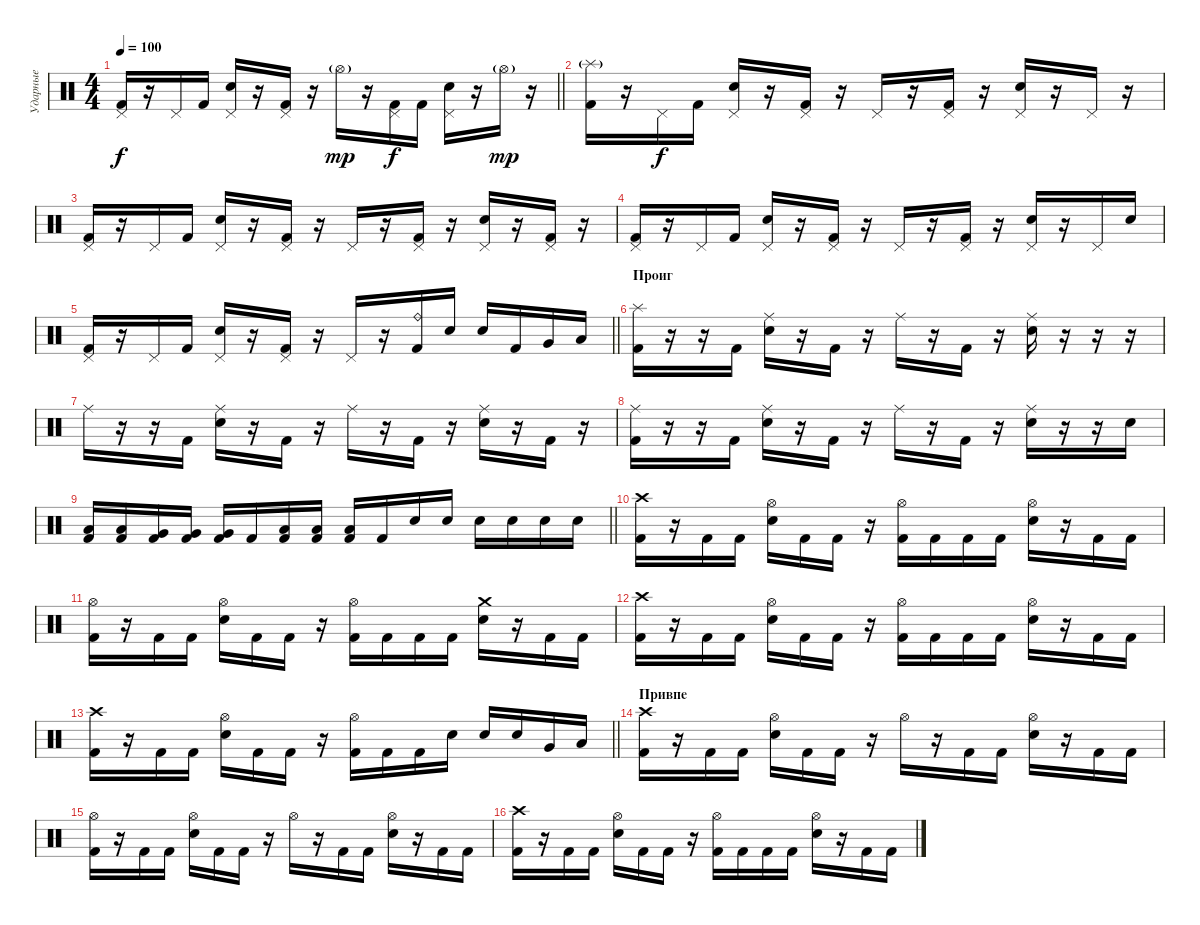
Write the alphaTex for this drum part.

\track ("Ударные" "Ударные") {instrument percussion}
\staff {score}
\articulation defaults
\ts (4 4)
\tempo 100
\clef neutral
\barLineRight lightlight
\ks c
("Pedal Hi-Hat (hit)" "Kick (hit) 2").16{dy f} r.16 "Pedal Hi-Hat (hit)".16 "Kick (hit) 2".16 ("Pedal Hi-Hat (hit)" "Snare (hit) 2").16 r.16 ("Pedal Hi-Hat (hit)" "Kick (hit) 2").16 r.16 "Hi-Hat (open)"{g}.16{dy mp} r.16 ("Pedal Hi-Hat (hit)" "Kick (hit) 2").16{dy f} "Kick (hit) 2".16 ("Pedal Hi-Hat (hit)" "Snare (hit) 2").16 r.16 "Hi-Hat (open)"{g}.16{dy mp} r.16 |
("Splash (hit)"{g} "Kick (hit) 2").16 r.16 "Pedal Hi-Hat (hit)".16{dy f} "Kick (hit) 2".16 ("Pedal Hi-Hat (hit)" "Snare (hit) 2").16 r.16 ("Pedal Hi-Hat (hit)" "Kick (hit) 2").16 r.16 "Pedal Hi-Hat (hit)".16 r.16 ("Pedal Hi-Hat (hit)" "Kick (hit) 2").16 r.16 ("Pedal Hi-Hat (hit)" "Snare (hit) 2").16 r.16 "Pedal Hi-Hat (hit)".16 r.16 |
("Pedal Hi-Hat (hit)" "Kick (hit) 2").16 r.16 "Pedal Hi-Hat (hit)".16 "Kick (hit) 2".16 ("Pedal Hi-Hat (hit)" "Snare (hit) 2").16 r.16 ("Pedal Hi-Hat (hit)" "Kick (hit) 2").16 r.16 "Pedal Hi-Hat (hit)".16 r.16 ("Pedal Hi-Hat (hit)" "Kick (hit) 2").16 r.16 ("Pedal Hi-Hat (hit)" "Snare (hit) 2").16 r.16 ("Pedal Hi-Hat (hit)" "Kick (hit) 2").16 r.16 |
("Pedal Hi-Hat (hit)" "Kick (hit) 2").16 r.16 "Pedal Hi-Hat (hit)".16 "Kick (hit) 2".16 ("Pedal Hi-Hat (hit)" "Snare (hit) 2").16 r.16 ("Pedal Hi-Hat (hit)" "Kick (hit) 2").16 r.16 "Pedal Hi-Hat (hit)".16 r.16 ("Pedal Hi-Hat (hit)" "Kick (hit) 2").16 r.16 ("Pedal Hi-Hat (hit)" "Snare (hit) 2").16 r.16 "Pedal Hi-Hat (hit)".16 "Snare (hit) 2".16 |
\barLineRight lightlight
("Pedal Hi-Hat (hit)" "Kick (hit) 2").16 r.16 "Pedal Hi-Hat (hit)".16 "Kick (hit) 2".16 ("Pedal Hi-Hat (hit)" "Snare (hit) 2").16 r.16 ("Pedal Hi-Hat (hit)" "Kick (hit) 2").16 r.16 "Pedal Hi-Hat (hit)".16 r.16 ("Ride (bell)" "Kick (hit) 2").16 "Snare (hit) 2".16 "Snare (hit) 2".16 "Kick (hit) 2".16 "Very Low Tom (hit)".16 "Low Tom (hit)".16 |
\section ("" "Проиг")
("Splash (hit)" "Kick (hit) 2").16 r.16 r.16 "Kick (hit) 2".16 ("Ride (middle)" "Snare (hit) 2").16 r.16 "Kick (hit) 2".16 r.16 "Ride (middle)".16 r.16 "Kick (hit) 2".16 r.16 ("Ride (middle)" "Snare (hit) 2").16 r.16 r.16 r.16 |
"Ride (middle)".16 r.16 r.16 "Kick (hit) 2".16 ("Ride (middle)" "Snare (hit) 2").16 r.16 "Kick (hit) 2".16 r.16 "Ride (middle)".16 r.16 "Kick (hit) 2".16 r.16 ("Ride (middle)" "Snare (hit) 2").16 r.16 "Kick (hit) 2".16 r.16 |
("Ride (middle)" "Kick (hit) 2").16 r.16 r.16 "Kick (hit) 2".16 ("Ride (middle)" "Snare (hit) 2").16 r.16 "Kick (hit) 2".16 r.16 "Ride (middle)".16 r.16 "Kick (hit) 2".16 r.16 ("Ride (middle)" "Snare (hit) 2").16 r.16 r.16 "Snare (hit) 2".16 |
\barLineRight lightlight
("Low Floor Tom (hit)" "Kick (hit) 2").16 ("Low Floor Tom (hit)" "Kick (hit) 2").16 ("Very Low Tom (hit)" "Kick (hit) 2").16 ("Very Low Tom (hit)" "Kick (hit) 2").16 ("Very Low Tom (hit)" "Kick (hit) 2").16 "Kick (hit) 2".16 ("Low Tom (hit)" "Kick (hit) 2").16 ("Low Tom (hit)" "Kick (hit) 2").16 ("Low Tom (hit)" "Kick (hit) 2").16 "Kick (hit) 2".16 "Snare (hit) 2".16 "Snare (hit) 2".16 "Snare (hit) 2".16 "Snare (hit) 2".16 "Snare (hit) 2".16 "Snare (hit) 2".16 |
("Crash high (hit)" "Kick (hit) 2").16 r.16 "Kick (hit) 2".16 "Kick (hit) 2".16 ("Hi-Hat (open)" "Snare (hit) 2").16 "Kick (hit) 2".16 "Kick (hit) 2".16 r.16 ("Hi-Hat (open)" "Kick (hit) 2").16 "Kick (hit) 2".16 "Kick (hit) 2".16 "Kick (hit) 2".16 ("Hi-Hat (open)" "Snare (hit) 2").16 r.16 "Kick (hit) 2".16 "Kick (hit) 2".16 |
("Hi-Hat (open)" "Kick (hit) 2").16 r.16 "Kick (hit) 2".16 "Kick (hit) 2".16 ("Hi-Hat (open)" "Snare (hit) 2").16 "Kick (hit) 2".16 "Kick (hit) 2".16 r.16 ("Hi-Hat (open)" "Kick (hit) 2").16 "Kick (hit) 2".16 "Kick (hit) 2".16 "Kick (hit) 2".16 ("Crash medium (hit)" "Snare (hit) 2").16 r.16 "Kick (hit) 2".16 "Kick (hit) 2".16 |
("Crash high (hit)" "Kick (hit) 2").16 r.16 "Kick (hit) 2".16 "Kick (hit) 2".16 ("Hi-Hat (open)" "Snare (hit) 2").16 "Kick (hit) 2".16 "Kick (hit) 2".16 r.16 ("Hi-Hat (open)" "Kick (hit) 2").16 "Kick (hit) 2".16 "Kick (hit) 2".16 "Kick (hit) 2".16 ("Hi-Hat (open)" "Snare (hit) 2").16 r.16 "Kick (hit) 2".16 "Kick (hit) 2".16 |
\barLineRight lightlight
("Crash high (hit)" "Kick (hit) 2").16 r.16 "Kick (hit) 2".16 "Kick (hit) 2".16 ("Hi-Hat (open)" "Snare (hit) 2").16 "Kick (hit) 2".16 "Kick (hit) 2".16 r.16 ("Hi-Hat (open)" "Kick (hit) 2").16 "Kick (hit) 2".16 "Kick (hit) 2".16 "Snare (hit) 2".16 "Snare (hit) 2".16 "Snare (hit) 2".16 "Very Low Tom (hit)".16 "Low Tom (hit)".16 |
\section ("" "Привпе")
("Crash high (hit)" "Kick (hit) 2").16 r.16 "Kick (hit) 2".16 "Kick (hit) 2".16 ("Hi-Hat (open)" "Snare (hit) 2").16 "Kick (hit) 2".16 "Kick (hit) 2".16 r.16 "Hi-Hat (open)".16 r.16 "Kick (hit) 2".16 "Kick (hit) 2".16 ("Hi-Hat (open)" "Snare (hit) 2").16 r.16 "Kick (hit) 2".16 "Kick (hit) 2".16 |
("Hi-Hat (open)" "Kick (hit) 2").16 r.16 "Kick (hit) 2".16 "Kick (hit) 2".16 ("Hi-Hat (open)" "Snare (hit) 2").16 "Kick (hit) 2".16 "Kick (hit) 2".16 r.16 "Hi-Hat (open)".16 r.16 "Kick (hit) 2".16 "Kick (hit) 2".16 ("Hi-Hat (open)" "Snare (hit) 2").16 r.16 "Kick (hit) 2".16 "Kick (hit) 2".16 |
("Crash high (hit)" "Kick (hit) 2").16 r.16 "Kick (hit) 2".16 "Kick (hit) 2".16 ("Hi-Hat (open)" "Snare (hit) 2").16 "Kick (hit) 2".16 "Kick (hit) 2".16 r.16 ("Hi-Hat (open)" "Kick (hit) 2").16 "Kick (hit) 2".16 "Kick (hit) 2".16 "Kick (hit) 2".16 ("Hi-Hat (open)" "Snare (hit) 2").16 r.16 "Kick (hit) 2".16 "Kick (hit) 2".16
